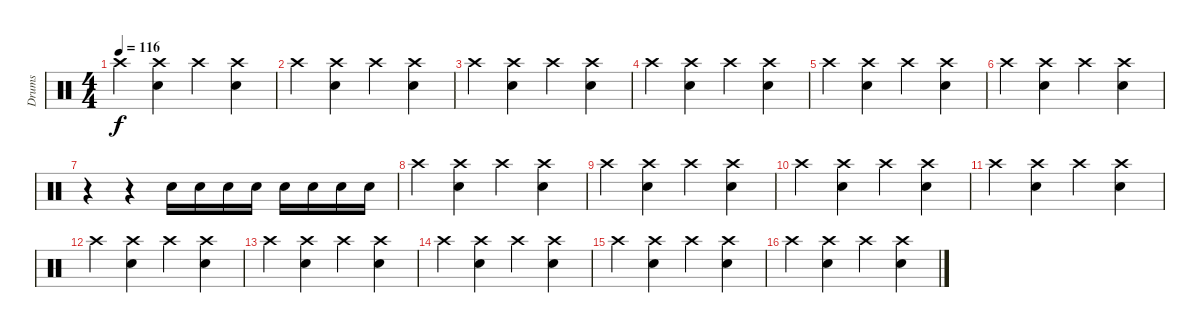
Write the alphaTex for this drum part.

\track ("Drums" "Drums") {instrument percussion}
\staff {score}
\articulation defaults
\ts (4 4)
\tempo 116
\clef neutral
\ks c "Crash high (hit)".4{dy f}
("Crash high (hit)" "Electric Snare (hit)").4 "Crash high (hit)".4 ("Crash high (hit)" "Electric Snare (hit)").4 |
"Crash high (hit)".4 ("Crash high (hit)" "Electric Snare (hit)").4 "Crash high (hit)".4 ("Crash high (hit)" "Electric Snare (hit)").4 |
"Crash high (hit)".4 ("Crash high (hit)" "Electric Snare (hit)").4 "Crash high (hit)".4 ("Crash high (hit)" "Electric Snare (hit)").4 |
"Crash high (hit)".4 ("Crash high (hit)" "Electric Snare (hit)").4 "Crash high (hit)".4 ("Crash high (hit)" "Electric Snare (hit)").4 |
"Crash high (hit)".4 ("Crash high (hit)" "Electric Snare (hit)").4 "Crash high (hit)".4 ("Crash high (hit)" "Electric Snare (hit)").4 |
"Crash high (hit)".4 ("Crash high (hit)" "Electric Snare (hit)").4 "Crash high (hit)".4 ("Crash high (hit)" "Electric Snare (hit)").4 |
r.4 r.4 "Electric Snare (hit)".16 "Electric Snare (hit)".16 "Electric Snare (hit)".16 "Electric Snare (hit)".16 "Electric Snare (hit)".16 "Electric Snare (hit)".16 "Electric Snare (hit)".16 "Electric Snare (hit)".16 |
"Crash high (hit)".4 ("Crash high (hit)" "Electric Snare (hit)").4 "Crash high (hit)".4 ("Crash high (hit)" "Electric Snare (hit)").4 |
"Crash high (hit)".4 ("Crash high (hit)" "Electric Snare (hit)").4 "Crash high (hit)".4 ("Crash high (hit)" "Electric Snare (hit)").4 |
"Crash high (hit)".4 ("Crash high (hit)" "Electric Snare (hit)").4 "Crash high (hit)".4 ("Crash high (hit)" "Electric Snare (hit)").4 |
"Crash high (hit)".4 ("Crash high (hit)" "Electric Snare (hit)").4 "Crash high (hit)".4 ("Crash high (hit)" "Electric Snare (hit)").4 |
"Crash high (hit)".4 ("Crash high (hit)" "Electric Snare (hit)").4 "Crash high (hit)".4 ("Crash high (hit)" "Electric Snare (hit)").4 |
"Crash high (hit)".4 ("Crash high (hit)" "Electric Snare (hit)").4 "Crash high (hit)".4 ("Crash high (hit)" "Electric Snare (hit)").4 |
"Crash high (hit)".4 ("Crash high (hit)" "Electric Snare (hit)").4 "Crash high (hit)".4 ("Crash high (hit)" "Electric Snare (hit)").4 |
"Crash high (hit)".4 ("Crash high (hit)" "Electric Snare (hit)").4 "Crash high (hit)".4 ("Crash high (hit)" "Electric Snare (hit)").4 |
"Crash high (hit)".4 ("Crash high (hit)" "Electric Snare (hit)").4 "Crash high (hit)".4 ("Crash high (hit)" "Electric Snare (hit)").4
